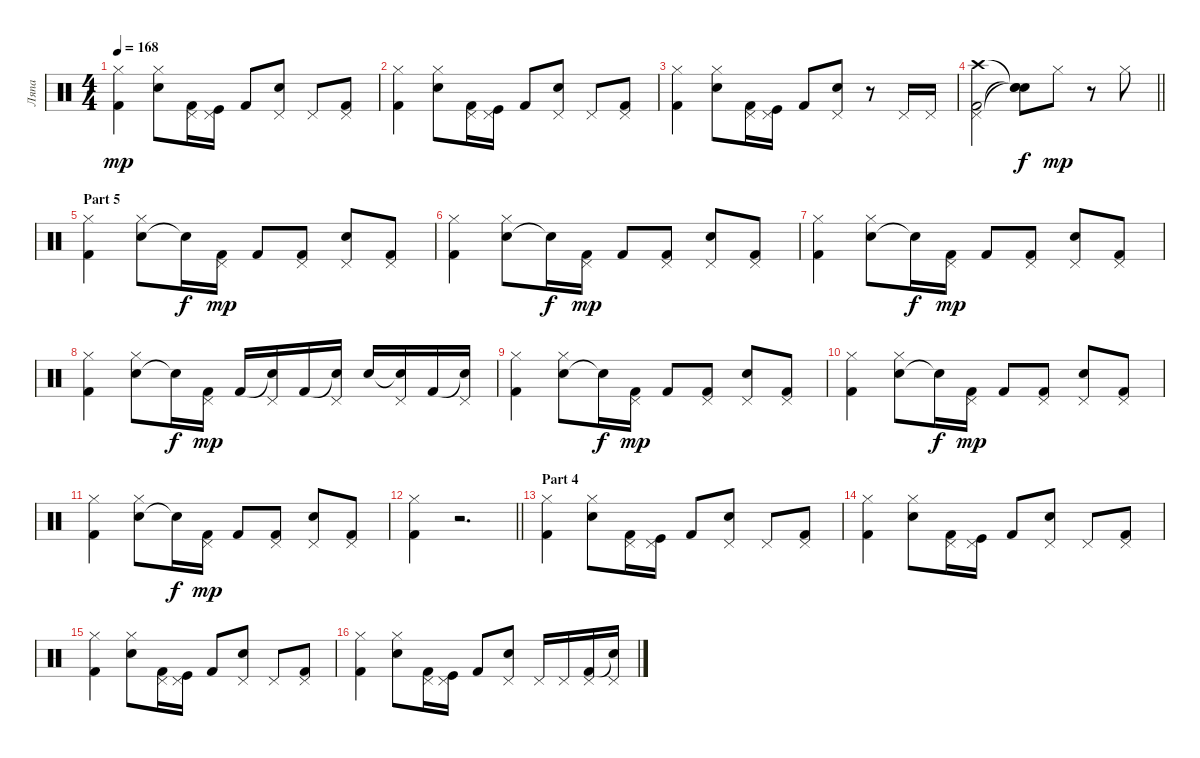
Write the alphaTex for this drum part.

\track ("Ляпа" "Ляпа") {instrument percussion}
\staff {score}
\articulation defaults
\ts (4 4)
\tempo 168
\clef neutral
\ks c
("Kick (hit) 2" "Hi-Hat (closed)").4{dy mp} ("Electric Snare (hit)" "Hi-Hat (closed)").8 ("Kick (hit) 2" "Pedal Hi-Hat (hit)").16 ("Kick (hit)" "Pedal Hi-Hat (hit)").16 "Kick (hit) 2".8 ("Electric Snare (hit)" "Pedal Hi-Hat (hit)").8 "Pedal Hi-Hat (hit)".8 ("Kick (hit) 2" "Pedal Hi-Hat (hit)").8 |
("Kick (hit) 2" "Hi-Hat (closed)").4 ("Electric Snare (hit)" "Hi-Hat (closed)").8 ("Kick (hit) 2" "Pedal Hi-Hat (hit)").16 ("Kick (hit)" "Pedal Hi-Hat (hit)").16 "Kick (hit) 2".8 ("Electric Snare (hit)" "Pedal Hi-Hat (hit)").8 "Pedal Hi-Hat (hit)".8 ("Kick (hit) 2" "Pedal Hi-Hat (hit)").8 |
("Kick (hit) 2" "Hi-Hat (closed)").4 ("Electric Snare (hit)" "Hi-Hat (closed)").8 ("Kick (hit) 2" "Pedal Hi-Hat (hit)").16 ("Kick (hit)" "Pedal Hi-Hat (hit)").16 "Kick (hit) 2".8 ("Electric Snare (hit)" "Pedal Hi-Hat (hit)").8 r.8 "Pedal Hi-Hat (hit)".16 "Pedal Hi-Hat (hit)".16 |
\barLineRight lightlight
("Crash high (hit)" "Pedal Hi-Hat (hit)" "Kick (hit) 2").2 ("Snare (hit)"{t} "Snare (hit)"{t} "Snare (hit)"{t}).8{dy f} "Hi-Hat (closed)".8{dy mp} r.8 "Hi-Hat (closed)".8 |
\section ("" "Part 5")
("Kick (hit) 2" "Hi-Hat (closed)").4 ("Electric Snare (hit)" "Hi-Hat (closed)").8 "Snare (hit)"{t}.16{dy f} ("Kick (hit) 2" "Pedal Hi-Hat (hit)").16{dy mp} "Kick (hit) 2".8 ("Kick (hit) 2" "Pedal Hi-Hat (hit)").8 ("Electric Snare (hit)" "Pedal Hi-Hat (hit)").8 ("Kick (hit) 2" "Pedal Hi-Hat (hit)").8 |
("Kick (hit) 2" "Hi-Hat (closed)").4 ("Electric Snare (hit)" "Hi-Hat (closed)").8 "Snare (hit)"{t}.16{dy f} ("Kick (hit) 2" "Pedal Hi-Hat (hit)").16{dy mp} "Kick (hit) 2".8 ("Kick (hit) 2" "Pedal Hi-Hat (hit)").8 ("Electric Snare (hit)" "Pedal Hi-Hat (hit)").8 ("Kick (hit) 2" "Pedal Hi-Hat (hit)").8 |
("Kick (hit) 2" "Hi-Hat (closed)").4 ("Electric Snare (hit)" "Hi-Hat (closed)").8 "Snare (hit)"{t}.16{dy f} ("Kick (hit) 2" "Pedal Hi-Hat (hit)").16{dy mp} "Kick (hit) 2".8 ("Kick (hit) 2" "Pedal Hi-Hat (hit)").8 ("Electric Snare (hit)" "Pedal Hi-Hat (hit)").8 ("Kick (hit) 2" "Pedal Hi-Hat (hit)").8 |
("Kick (hit) 2" "Hi-Hat (closed)").4 ("Electric Snare (hit)" "Hi-Hat (closed)").8 "Snare (hit)"{t}.16{dy f} ("Kick (hit) 2" "Pedal Hi-Hat (hit)").16{dy mp} "Kick (hit) 2".16 ("Snare (hit)"{t} "Pedal Hi-Hat (hit)").16 "Kick (hit) 2".16 ("Snare (hit)"{t} "Pedal Hi-Hat (hit)").16 "Electric Snare (hit)".16 ("Snare (hit)"{t} "Pedal Hi-Hat (hit)").16 "Kick (hit) 2".16 ("Snare (hit)"{t} "Pedal Hi-Hat (hit)").16 |
("Kick (hit) 2" "Hi-Hat (closed)").4 ("Electric Snare (hit)" "Hi-Hat (closed)").8 "Snare (hit)"{t}.16{dy f} ("Kick (hit) 2" "Pedal Hi-Hat (hit)").16{dy mp} "Kick (hit) 2".8 ("Kick (hit) 2" "Pedal Hi-Hat (hit)").8 ("Electric Snare (hit)" "Pedal Hi-Hat (hit)").8 ("Kick (hit) 2" "Pedal Hi-Hat (hit)").8 |
("Kick (hit) 2" "Hi-Hat (closed)").4 ("Electric Snare (hit)" "Hi-Hat (closed)").8 "Snare (hit)"{t}.16{dy f} ("Kick (hit) 2" "Pedal Hi-Hat (hit)").16{dy mp} "Kick (hit) 2".8 ("Kick (hit) 2" "Pedal Hi-Hat (hit)").8 ("Electric Snare (hit)" "Pedal Hi-Hat (hit)").8 ("Kick (hit) 2" "Pedal Hi-Hat (hit)").8 |
("Kick (hit) 2" "Hi-Hat (closed)").4 ("Electric Snare (hit)" "Hi-Hat (closed)").8 "Snare (hit)"{t}.16{dy f} ("Kick (hit) 2" "Pedal Hi-Hat (hit)").16{dy mp} "Kick (hit) 2".8 ("Kick (hit) 2" "Pedal Hi-Hat (hit)").8 ("Electric Snare (hit)" "Pedal Hi-Hat (hit)").8 ("Kick (hit) 2" "Pedal Hi-Hat (hit)").8 |
\barLineRight lightlight
("Kick (hit) 2" "Hi-Hat (closed)").4 r.2{d} |
\section ("" "Part 4")
("Kick (hit) 2" "Hi-Hat (closed)").4 ("Electric Snare (hit)" "Hi-Hat (closed)").8 ("Kick (hit) 2" "Pedal Hi-Hat (hit)").16 ("Kick (hit)" "Pedal Hi-Hat (hit)").16 "Kick (hit) 2".8 ("Electric Snare (hit)" "Pedal Hi-Hat (hit)").8 "Pedal Hi-Hat (hit)".8 ("Kick (hit) 2" "Pedal Hi-Hat (hit)").8 |
("Kick (hit) 2" "Hi-Hat (closed)").4 ("Electric Snare (hit)" "Hi-Hat (closed)").8 ("Kick (hit) 2" "Pedal Hi-Hat (hit)").16 ("Kick (hit)" "Pedal Hi-Hat (hit)").16 "Kick (hit) 2".8 ("Electric Snare (hit)" "Pedal Hi-Hat (hit)").8 "Pedal Hi-Hat (hit)".8 ("Kick (hit) 2" "Pedal Hi-Hat (hit)").8 |
("Kick (hit) 2" "Hi-Hat (closed)").4 ("Electric Snare (hit)" "Hi-Hat (closed)").8 ("Kick (hit) 2" "Pedal Hi-Hat (hit)").16 ("Kick (hit)" "Pedal Hi-Hat (hit)").16 "Kick (hit) 2".8 ("Electric Snare (hit)" "Pedal Hi-Hat (hit)").8 "Pedal Hi-Hat (hit)".8 ("Kick (hit) 2" "Pedal Hi-Hat (hit)").8 |
("Kick (hit) 2" "Hi-Hat (closed)").4 ("Electric Snare (hit)" "Hi-Hat (closed)").8 ("Kick (hit) 2" "Pedal Hi-Hat (hit)").16 ("Kick (hit)" "Pedal Hi-Hat (hit)").16 "Kick (hit) 2".8 ("Electric Snare (hit)" "Pedal Hi-Hat (hit)").8 "Pedal Hi-Hat (hit)".16 "Pedal Hi-Hat (hit)".16 ("Kick (hit) 2" "Pedal Hi-Hat (hit)").16 ("Snare (hit)"{t} "Pedal Hi-Hat (hit)").16
